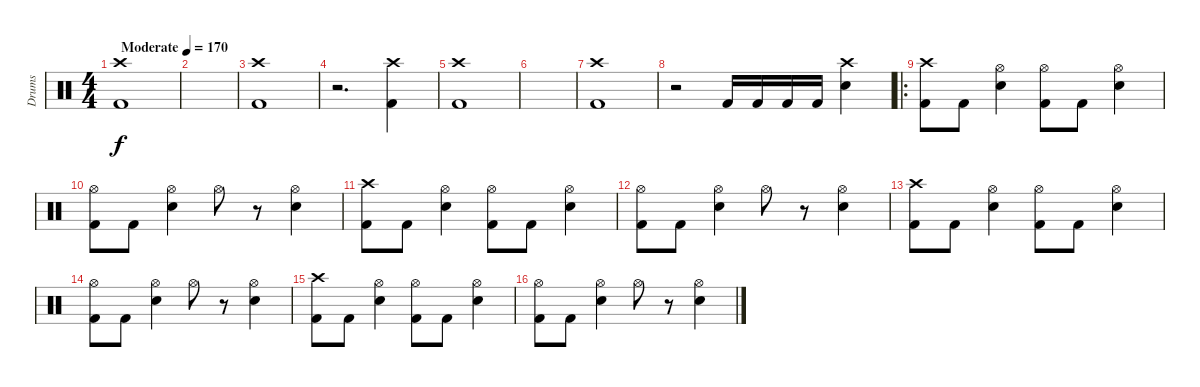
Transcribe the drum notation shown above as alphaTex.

\track ("Drums" "Drums") {instrument percussion}
\staff {score}
\articulation defaults
\ts (4 4)
\tempo (170 "Moderate")
\clef neutral
\ks c
("Crash high (hit)" "Kick (hit) 2").1{dy f} |
|
("Crash high (hit)" "Kick (hit) 2").1 |
r.2{d} ("Crash high (hit)" "Kick (hit) 2").4 |
("Crash high (hit)" "Kick (hit) 2").1 |
|
("Crash high (hit)" "Kick (hit) 2").1 |
r.2 "Kick (hit) 2".16 "Kick (hit) 2".16 "Kick (hit) 2".16 "Kick (hit) 2".16 ("Crash high (hit)" "Snare (hit) 2").4 |
\ro
("Crash high (hit)" "Kick (hit) 2").8 "Kick (hit) 2".8 ("Hi-Hat (open)" "Snare (hit) 2").4 ("Hi-Hat (open)" "Kick (hit) 2").8 "Kick (hit) 2".8 ("Hi-Hat (open)" "Snare (hit) 2").4 |
("Hi-Hat (open)" "Kick (hit) 2").8 "Kick (hit) 2".8 ("Hi-Hat (open)" "Snare (hit) 2").4 "Hi-Hat (open)".8 r.8 ("Hi-Hat (open)" "Snare (hit) 2").4 |
("Crash high (hit)" "Kick (hit) 2").8 "Kick (hit) 2".8 ("Hi-Hat (open)" "Snare (hit) 2").4 ("Hi-Hat (open)" "Kick (hit) 2").8 "Kick (hit) 2".8 ("Hi-Hat (open)" "Snare (hit) 2").4 |
("Hi-Hat (open)" "Kick (hit) 2").8 "Kick (hit) 2".8 ("Hi-Hat (open)" "Snare (hit) 2").4 "Hi-Hat (open)".8 r.8 ("Hi-Hat (open)" "Snare (hit) 2").4 |
("Crash high (hit)" "Kick (hit) 2").8 "Kick (hit) 2".8 ("Hi-Hat (open)" "Snare (hit) 2").4 ("Hi-Hat (open)" "Kick (hit) 2").8 "Kick (hit) 2".8 ("Hi-Hat (open)" "Snare (hit) 2").4 |
("Hi-Hat (open)" "Kick (hit) 2").8 "Kick (hit) 2".8 ("Hi-Hat (open)" "Snare (hit) 2").4 "Hi-Hat (open)".8 r.8 ("Hi-Hat (open)" "Snare (hit) 2").4 |
("Crash high (hit)" "Kick (hit) 2").8 "Kick (hit) 2".8 ("Hi-Hat (open)" "Snare (hit) 2").4 ("Hi-Hat (open)" "Kick (hit) 2").8 "Kick (hit) 2".8 ("Hi-Hat (open)" "Snare (hit) 2").4 |
("Hi-Hat (open)" "Kick (hit) 2").8 "Kick (hit) 2".8 ("Hi-Hat (open)" "Snare (hit) 2").4 "Hi-Hat (open)".8 r.8 ("Hi-Hat (open)" "Snare (hit) 2").4
